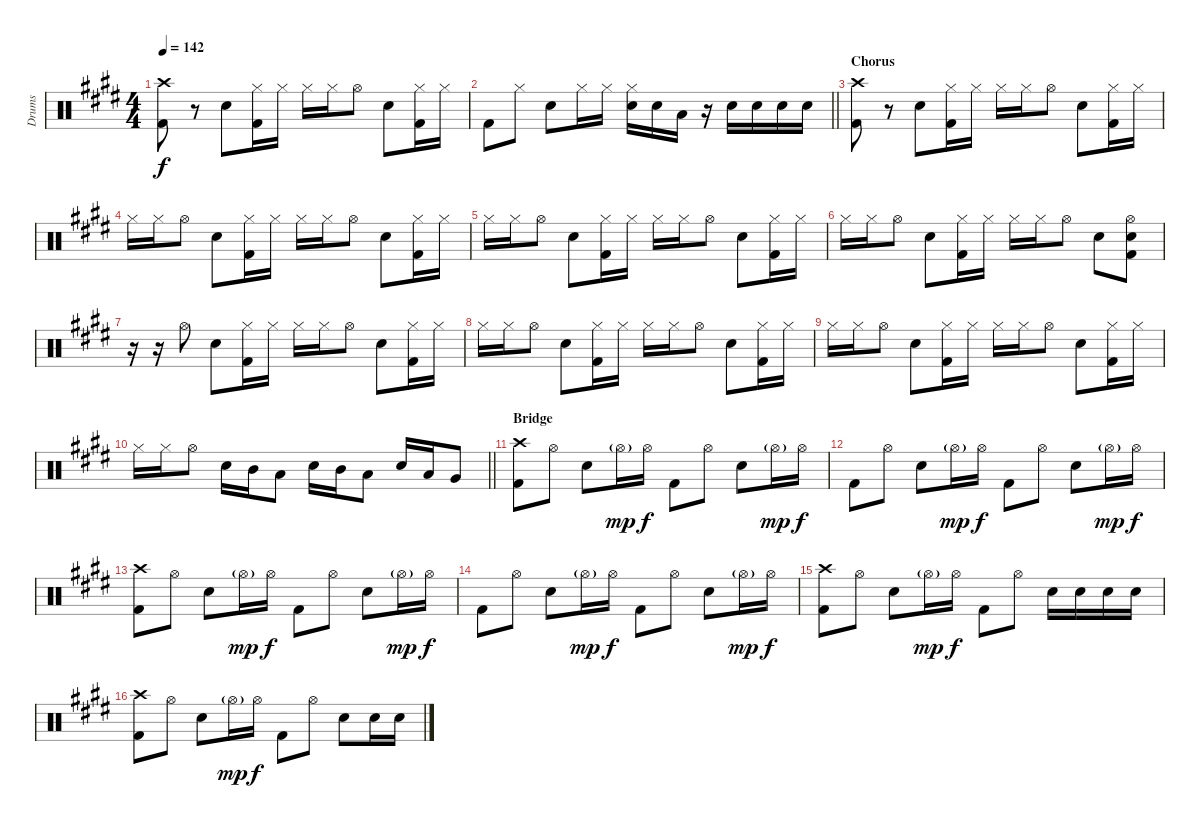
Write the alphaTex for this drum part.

\track ("Drums" "Drums") {instrument percussion}
\staff {score}
\articulation defaults
\ts (4 4)
\tempo 142
\clef neutral
\ks e
("Crash high (hit)" "Kick (hit) 2").8{dy f} r.8 "Electric Snare (hit)".8 ("Hi-Hat (closed)" "Kick (hit) 2").16 "Hi-Hat (closed)".16 "Hi-Hat (closed)".16 "Hi-Hat (closed)".16 "Hi-Hat (open)".8 "Electric Snare (hit)".8 ("Hi-Hat (closed)" "Kick (hit) 2").16 "Hi-Hat (closed)".16 |
\barLineRight lightlight "Kick (hit) 2".8 "Hi-Hat (closed)".8 "Electric Snare (hit)".8 "Hi-Hat (closed)".16 "Hi-Hat (closed)".16
("Hi-Hat (closed)" "Electric Snare (hit)").16 "Electric Snare (hit)".16 "Low Tom (hit)".16 r.16 "Electric Snare (hit)".16 "Electric Snare (hit)".16 "Electric Snare (hit)".16 "Electric Snare (hit)".16 |
\section ("" "Chorus")
("Crash high (hit)" "Kick (hit) 2").8 r.8 "Electric Snare (hit)".8 ("Hi-Hat (closed)" "Kick (hit) 2").16 "Hi-Hat (closed)".16 "Hi-Hat (closed)".16 "Hi-Hat (closed)".16 "Hi-Hat (open)".8 "Electric Snare (hit)".8 ("Hi-Hat (closed)" "Kick (hit) 2").16 "Hi-Hat (closed)".16 |
"Hi-Hat (closed)".16 "Hi-Hat (closed)".16 "Hi-Hat (open)".8 "Electric Snare (hit)".8 ("Hi-Hat (closed)" "Kick (hit) 2").16 "Hi-Hat (closed)".16 "Hi-Hat (closed)".16 "Hi-Hat (closed)".16 "Hi-Hat (open)".8 "Electric Snare (hit)".8 ("Hi-Hat (closed)" "Kick (hit) 2").16 "Hi-Hat (closed)".16 |
"Hi-Hat (closed)".16 "Hi-Hat (closed)".16 "Hi-Hat (open)".8 "Electric Snare (hit)".8 ("Hi-Hat (closed)" "Kick (hit) 2").16 "Hi-Hat (closed)".16 "Hi-Hat (closed)".16 "Hi-Hat (closed)".16 "Hi-Hat (open)".8 "Electric Snare (hit)".8 ("Hi-Hat (closed)" "Kick (hit) 2").16 "Hi-Hat (closed)".16 |
"Hi-Hat (closed)".16 "Hi-Hat (closed)".16 "Hi-Hat (open)".8 "Electric Snare (hit)".8 ("Hi-Hat (closed)" "Kick (hit) 2").16 "Hi-Hat (closed)".16 "Hi-Hat (closed)".16 "Hi-Hat (closed)".16 "Hi-Hat (open)".8 "Electric Snare (hit)".8 ("Hi-Hat (open)" "Electric Snare (hit)" "Kick (hit) 2").8 |
r.16 r.16 "Hi-Hat (open)".8 "Electric Snare (hit)".8 ("Hi-Hat (closed)" "Kick (hit) 2").16 "Hi-Hat (closed)".16 "Hi-Hat (closed)".16 "Hi-Hat (closed)".16 "Hi-Hat (open)".8 "Electric Snare (hit)".8 ("Hi-Hat (closed)" "Kick (hit) 2").16 "Hi-Hat (closed)".16 |
"Hi-Hat (closed)".16 "Hi-Hat (closed)".16 "Hi-Hat (open)".8 "Electric Snare (hit)".8 ("Hi-Hat (closed)" "Kick (hit) 2").16 "Hi-Hat (closed)".16 "Hi-Hat (closed)".16 "Hi-Hat (closed)".16 "Hi-Hat (open)".8 "Electric Snare (hit)".8 ("Hi-Hat (closed)" "Kick (hit) 2").16 "Hi-Hat (closed)".16 |
"Hi-Hat (closed)".16 "Hi-Hat (closed)".16 "Hi-Hat (open)".8 "Electric Snare (hit)".8 ("Hi-Hat (closed)" "Kick (hit) 2").16 "Hi-Hat (closed)".16 "Hi-Hat (closed)".16 "Hi-Hat (closed)".16 "Hi-Hat (open)".8 "Electric Snare (hit)".8 ("Hi-Hat (closed)" "Kick (hit) 2").16 "Hi-Hat (closed)".16 |
\barLineRight lightlight "Hi-Hat (closed)".16 "Hi-Hat (closed)".16 "Hi-Hat (open)".8 "Electric Snare (hit)".16 "Mid Tom (hit)".16 "Low Tom (hit)".8 "Electric Snare (hit)".16 "Mid Tom (hit)".16 "Low Tom (hit)".8 "Electric Snare (hit)".16 "Low Tom (hit)".16 "Very Low Tom (hit)".8
|
\section ("" "Bridge")
("Crash high (hit)" "Kick (hit) 2").8 "Hi-Hat (open)".8 "Electric Snare (hit)".8 "Hi-Hat (open)"{g}.16{dy mp} "Hi-Hat (open)".16{dy f} "Kick (hit) 2".8 "Hi-Hat (open)".8 "Electric Snare (hit)".8 "Hi-Hat (open)"{g}.16{dy mp} "Hi-Hat (open)".16{dy f} |
"Kick (hit) 2".8 "Hi-Hat (open)".8 "Electric Snare (hit)".8 "Hi-Hat (open)"{g}.16{dy mp} "Hi-Hat (open)".16{dy f} "Kick (hit) 2".8 "Hi-Hat (open)".8 "Electric Snare (hit)".8 "Hi-Hat (open)"{g}.16{dy mp} "Hi-Hat (open)".16{dy f} |
("Crash high (hit)" "Kick (hit) 2").8 "Hi-Hat (open)".8 "Electric Snare (hit)".8 "Hi-Hat (open)"{g}.16{dy mp} "Hi-Hat (open)".16{dy f} "Kick (hit) 2".8 "Hi-Hat (open)".8 "Electric Snare (hit)".8 "Hi-Hat (open)"{g}.16{dy mp} "Hi-Hat (open)".16{dy f} |
"Kick (hit) 2".8 "Hi-Hat (open)".8 "Electric Snare (hit)".8 "Hi-Hat (open)"{g}.16{dy mp} "Hi-Hat (open)".16{dy f} "Kick (hit) 2".8 "Hi-Hat (open)".8 "Electric Snare (hit)".8 "Hi-Hat (open)"{g}.16{dy mp} "Hi-Hat (open)".16{dy f} |
("Crash high (hit)" "Kick (hit) 2").8 "Hi-Hat (open)".8 "Electric Snare (hit)".8 "Hi-Hat (open)"{g}.16{dy mp} "Hi-Hat (open)".16{dy f} "Kick (hit) 2".8 "Hi-Hat (open)".8 "Electric Snare (hit)".16 "Electric Snare (hit)".16 "Electric Snare (hit)".16 "Electric Snare (hit)".16 |
("Crash high (hit)" "Kick (hit) 2").8 "Hi-Hat (open)".8 "Electric Snare (hit)".8 "Hi-Hat (open)"{g}.16{dy mp} "Hi-Hat (open)".16{dy f} "Kick (hit) 2".8 "Hi-Hat (open)".8 "Electric Snare (hit)".8 "Electric Snare (hit)".16 "Electric Snare (hit)".16
